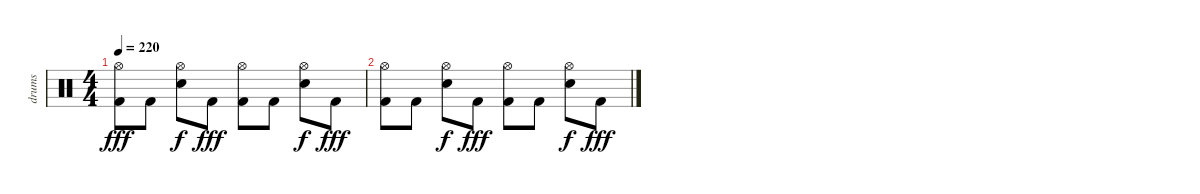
\track ("drums" "drums") {instrument percussion}
\staff {score}
\articulation defaults
\ts (4 4)
\tempo 220
\clef neutral
\ks c
("Hi-Hat (open)" "Kick (hit) 2").8{dy fff} "Kick (hit) 2".8 ("Hi-Hat (open)" "Snare (hit) 2").8{dy f} "Kick (hit) 2".8{dy fff} ("Hi-Hat (open)" "Kick (hit) 2").8 "Kick (hit) 2".8 ("Hi-Hat (open)" "Snare (hit) 2").8{dy f} "Kick (hit) 2".8{dy fff} |
("Hi-Hat (open)" "Kick (hit) 2").8 "Kick (hit) 2".8 ("Hi-Hat (open)" "Snare (hit) 2").8{dy f} "Kick (hit) 2".8{dy fff} ("Hi-Hat (open)" "Kick (hit) 2").8 "Kick (hit) 2".8 ("Hi-Hat (open)" "Snare (hit) 2").8{dy f} "Kick (hit) 2".8{dy fff}
